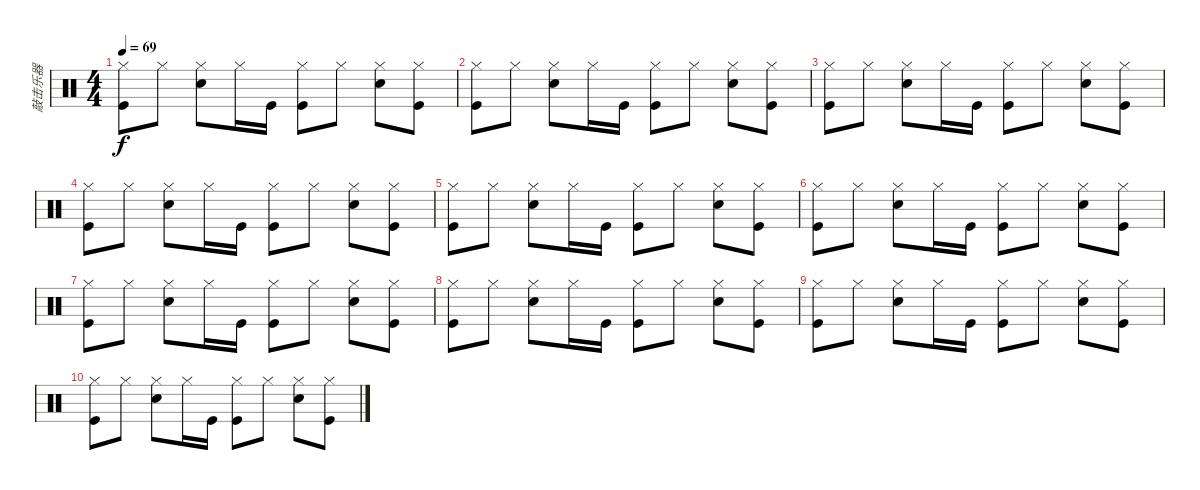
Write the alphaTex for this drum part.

\track ("敲击乐器" "敲击乐器") {instrument percussion}
\staff {score}
\articulation defaults
\ts (4 4)
\tempo 69
\clef neutral
\ks c
("Hi-Hat (closed)" "Kick (hit)").8{dy f} "Hi-Hat (closed)".8 ("Hi-Hat (closed)" "Snare (hit) 2").8 "Hi-Hat (closed)".16 "Kick (hit)".16 ("Hi-Hat (closed)" "Kick (hit)").8 "Hi-Hat (closed)".8 ("Hi-Hat (closed)" "Snare (hit) 2").8 ("Hi-Hat (closed)" "Kick (hit)").8 |
("Hi-Hat (closed)" "Kick (hit)").8 "Hi-Hat (closed)".8 ("Hi-Hat (closed)" "Snare (hit) 2").8 "Hi-Hat (closed)".16 "Kick (hit)".16 ("Hi-Hat (closed)" "Kick (hit)").8 "Hi-Hat (closed)".8 ("Hi-Hat (closed)" "Snare (hit) 2").8 ("Hi-Hat (closed)" "Kick (hit)").8 |
("Hi-Hat (closed)" "Kick (hit)").8 "Hi-Hat (closed)".8 ("Hi-Hat (closed)" "Snare (hit) 2").8 "Hi-Hat (closed)".16 "Kick (hit)".16 ("Hi-Hat (closed)" "Kick (hit)").8 "Hi-Hat (closed)".8 ("Hi-Hat (closed)" "Snare (hit) 2").8 ("Hi-Hat (closed)" "Kick (hit)").8 |
("Hi-Hat (closed)" "Kick (hit)").8 "Hi-Hat (closed)".8 ("Hi-Hat (closed)" "Snare (hit) 2").8 "Hi-Hat (closed)".16 "Kick (hit)".16 ("Hi-Hat (closed)" "Kick (hit)").8 "Hi-Hat (closed)".8 ("Hi-Hat (closed)" "Snare (hit) 2").8 ("Hi-Hat (closed)" "Kick (hit)").8 |
("Hi-Hat (closed)" "Kick (hit)").8 "Hi-Hat (closed)".8 ("Hi-Hat (closed)" "Snare (hit) 2").8 "Hi-Hat (closed)".16 "Kick (hit)".16 ("Hi-Hat (closed)" "Kick (hit)").8 "Hi-Hat (closed)".8 ("Hi-Hat (closed)" "Snare (hit) 2").8 ("Hi-Hat (closed)" "Kick (hit)").8 |
("Hi-Hat (closed)" "Kick (hit)").8 "Hi-Hat (closed)".8 ("Hi-Hat (closed)" "Snare (hit) 2").8 "Hi-Hat (closed)".16 "Kick (hit)".16 ("Hi-Hat (closed)" "Kick (hit)").8 "Hi-Hat (closed)".8 ("Hi-Hat (closed)" "Snare (hit) 2").8 ("Hi-Hat (closed)" "Kick (hit)").8 |
("Hi-Hat (closed)" "Kick (hit)").8 "Hi-Hat (closed)".8 ("Hi-Hat (closed)" "Snare (hit) 2").8 "Hi-Hat (closed)".16 "Kick (hit)".16 ("Hi-Hat (closed)" "Kick (hit)").8 "Hi-Hat (closed)".8 ("Hi-Hat (closed)" "Snare (hit) 2").8 ("Hi-Hat (closed)" "Kick (hit)").8 |
("Hi-Hat (closed)" "Kick (hit)").8 "Hi-Hat (closed)".8 ("Hi-Hat (closed)" "Snare (hit) 2").8 "Hi-Hat (closed)".16 "Kick (hit)".16 ("Hi-Hat (closed)" "Kick (hit)").8 "Hi-Hat (closed)".8 ("Hi-Hat (closed)" "Snare (hit) 2").8 ("Hi-Hat (closed)" "Kick (hit)").8 |
("Hi-Hat (closed)" "Kick (hit)").8 "Hi-Hat (closed)".8 ("Hi-Hat (closed)" "Snare (hit) 2").8 "Hi-Hat (closed)".16 "Kick (hit)".16 ("Hi-Hat (closed)" "Kick (hit)").8 "Hi-Hat (closed)".8 ("Hi-Hat (closed)" "Snare (hit) 2").8 ("Hi-Hat (closed)" "Kick (hit)").8 |
("Hi-Hat (closed)" "Kick (hit)").8 "Hi-Hat (closed)".8 ("Hi-Hat (closed)" "Snare (hit) 2").8 "Hi-Hat (closed)".16 "Kick (hit)".16 ("Hi-Hat (closed)" "Kick (hit)").8 "Hi-Hat (closed)".8 ("Hi-Hat (closed)" "Snare (hit) 2").8 ("Hi-Hat (closed)" "Kick (hit)").8
